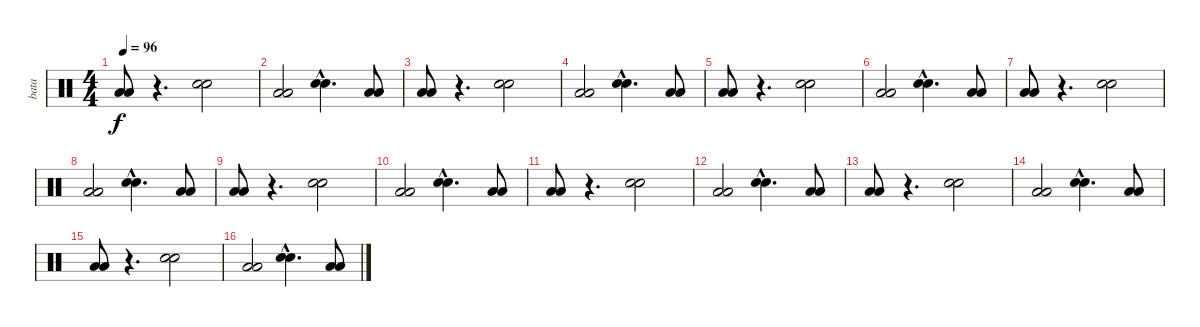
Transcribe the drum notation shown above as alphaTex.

\track ("bata" "bata") {instrument percussion}
\staff {score}
\articulation defaults
\ts (4 4)
\tempo 96
\clef neutral
\ks c
("Low Floor Tom (hit)" "Low Floor Tom (hit)").8{dy f} r.4{d} ("Electric Snare (hit)" "Electric Snare (hit)").2 |
("Low Floor Tom (hit)" "Low Floor Tom (hit)").2 ("Electric Snare (hit)"{hac} "Electric Snare (hit)"{hac}).4{d} ("Low Floor Tom (hit)" "Low Floor Tom (hit)").8 |
("Low Floor Tom (hit)" "Low Floor Tom (hit)").8 r.4{d} ("Electric Snare (hit)" "Electric Snare (hit)").2 |
("Low Floor Tom (hit)" "Low Floor Tom (hit)").2 ("Electric Snare (hit)"{hac} "Electric Snare (hit)"{hac}).4{d} ("Low Floor Tom (hit)" "Low Floor Tom (hit)").8 |
("Low Floor Tom (hit)" "Low Floor Tom (hit)").8 r.4{d} ("Electric Snare (hit)" "Electric Snare (hit)").2 |
("Low Floor Tom (hit)" "Low Floor Tom (hit)").2 ("Electric Snare (hit)"{hac} "Electric Snare (hit)"{hac}).4{d} ("Low Floor Tom (hit)" "Low Floor Tom (hit)").8 |
("Low Floor Tom (hit)" "Low Floor Tom (hit)").8 r.4{d} ("Electric Snare (hit)" "Electric Snare (hit)").2 |
("Low Floor Tom (hit)" "Low Floor Tom (hit)").2 ("Electric Snare (hit)"{hac} "Electric Snare (hit)"{hac}).4{d} ("Low Floor Tom (hit)" "Low Floor Tom (hit)").8 |
("Low Floor Tom (hit)" "Low Floor Tom (hit)").8 r.4{d} ("Electric Snare (hit)" "Electric Snare (hit)").2 |
("Low Floor Tom (hit)" "Low Floor Tom (hit)").2 ("Electric Snare (hit)"{hac} "Electric Snare (hit)"{hac}).4{d} ("Low Floor Tom (hit)" "Low Floor Tom (hit)").8 |
("Low Floor Tom (hit)" "Low Floor Tom (hit)").8 r.4{d} ("Electric Snare (hit)" "Electric Snare (hit)").2 |
("Low Floor Tom (hit)" "Low Floor Tom (hit)").2 ("Electric Snare (hit)"{hac} "Electric Snare (hit)"{hac}).4{d} ("Low Floor Tom (hit)" "Low Floor Tom (hit)").8 |
("Low Floor Tom (hit)" "Low Floor Tom (hit)").8 r.4{d} ("Electric Snare (hit)" "Electric Snare (hit)").2 |
("Low Floor Tom (hit)" "Low Floor Tom (hit)").2 ("Electric Snare (hit)"{hac} "Electric Snare (hit)"{hac}).4{d} ("Low Floor Tom (hit)" "Low Floor Tom (hit)").8 |
("Low Floor Tom (hit)" "Low Floor Tom (hit)").8 r.4{d} ("Electric Snare (hit)" "Electric Snare (hit)").2 |
("Low Floor Tom (hit)" "Low Floor Tom (hit)").2 ("Electric Snare (hit)"{hac} "Electric Snare (hit)"{hac}).4{d} ("Low Floor Tom (hit)" "Low Floor Tom (hit)").8
